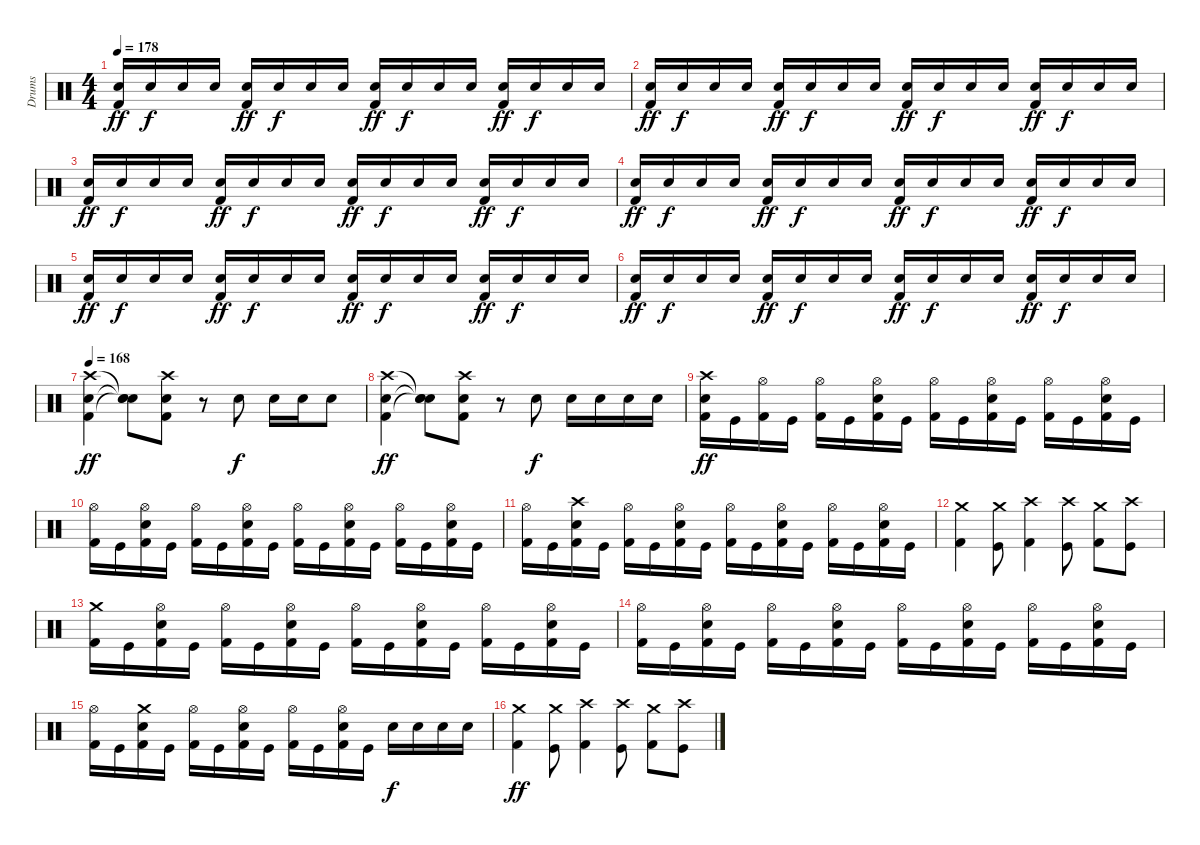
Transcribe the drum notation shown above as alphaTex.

\track ("Drums" "Drums") {instrument percussion}
\staff {score}
\articulation defaults
\ts (4 4)
\tempo 178
\clef neutral
\ks c
("Electric Snare (hit)" "Kick (hit) 2").16{dy ff} "Electric Snare (hit)".16{dy f} "Electric Snare (hit)".16 "Electric Snare (hit)".16 ("Electric Snare (hit)" "Kick (hit) 2").16{dy ff} "Electric Snare (hit)".16{dy f} "Electric Snare (hit)".16 "Electric Snare (hit)".16 ("Electric Snare (hit)" "Kick (hit) 2").16{dy ff} "Electric Snare (hit)".16{dy f} "Electric Snare (hit)".16 "Electric Snare (hit)".16 ("Electric Snare (hit)" "Kick (hit) 2").16{dy ff} "Electric Snare (hit)".16{dy f} "Electric Snare (hit)".16 "Electric Snare (hit)".16 |
("Electric Snare (hit)" "Kick (hit) 2").16{dy ff} "Electric Snare (hit)".16{dy f} "Electric Snare (hit)".16 "Electric Snare (hit)".16 ("Electric Snare (hit)" "Kick (hit) 2").16{dy ff} "Electric Snare (hit)".16{dy f} "Electric Snare (hit)".16 "Electric Snare (hit)".16 ("Electric Snare (hit)" "Kick (hit) 2").16{dy ff} "Electric Snare (hit)".16{dy f} "Electric Snare (hit)".16 "Electric Snare (hit)".16 ("Electric Snare (hit)" "Kick (hit) 2").16{dy ff} "Electric Snare (hit)".16{dy f} "Electric Snare (hit)".16 "Electric Snare (hit)".16 |
("Electric Snare (hit)" "Kick (hit) 2").16{dy ff} "Electric Snare (hit)".16{dy f} "Electric Snare (hit)".16 "Electric Snare (hit)".16 ("Electric Snare (hit)" "Kick (hit) 2").16{dy ff} "Electric Snare (hit)".16{dy f} "Electric Snare (hit)".16 "Electric Snare (hit)".16 ("Electric Snare (hit)" "Kick (hit) 2").16{dy ff} "Electric Snare (hit)".16{dy f} "Electric Snare (hit)".16 "Electric Snare (hit)".16 ("Electric Snare (hit)" "Kick (hit) 2").16{dy ff} "Electric Snare (hit)".16{dy f} "Electric Snare (hit)".16 "Electric Snare (hit)".16 |
("Electric Snare (hit)" "Kick (hit) 2").16{dy ff} "Electric Snare (hit)".16{dy f} "Electric Snare (hit)".16 "Electric Snare (hit)".16 ("Electric Snare (hit)" "Kick (hit) 2").16{dy ff} "Electric Snare (hit)".16{dy f} "Electric Snare (hit)".16 "Electric Snare (hit)".16 ("Electric Snare (hit)" "Kick (hit) 2").16{dy ff} "Electric Snare (hit)".16{dy f} "Electric Snare (hit)".16 "Electric Snare (hit)".16 ("Electric Snare (hit)" "Kick (hit) 2").16{dy ff} "Electric Snare (hit)".16{dy f} "Electric Snare (hit)".16 "Electric Snare (hit)".16 |
("Electric Snare (hit)" "Kick (hit) 2").16{dy ff} "Electric Snare (hit)".16{dy f} "Electric Snare (hit)".16 "Electric Snare (hit)".16 ("Electric Snare (hit)" "Kick (hit) 2").16{dy ff} "Electric Snare (hit)".16{dy f} "Electric Snare (hit)".16 "Electric Snare (hit)".16 ("Electric Snare (hit)" "Kick (hit) 2").16{dy ff} "Electric Snare (hit)".16{dy f} "Electric Snare (hit)".16 "Electric Snare (hit)".16 ("Electric Snare (hit)" "Kick (hit) 2").16{dy ff} "Electric Snare (hit)".16{dy f} "Electric Snare (hit)".16 "Electric Snare (hit)".16 |
("Electric Snare (hit)" "Kick (hit) 2").16{dy ff} "Electric Snare (hit)".16{dy f} "Electric Snare (hit)".16 "Electric Snare (hit)".16 ("Electric Snare (hit)" "Kick (hit) 2").16{dy ff} "Electric Snare (hit)".16{dy f} "Electric Snare (hit)".16 "Electric Snare (hit)".16 ("Electric Snare (hit)" "Kick (hit) 2").16{dy ff} "Electric Snare (hit)".16{dy f} "Electric Snare (hit)".16 "Electric Snare (hit)".16 ("Electric Snare (hit)" "Kick (hit) 2").16{dy ff} "Electric Snare (hit)".16{dy f} "Electric Snare (hit)".16 "Electric Snare (hit)".16 |
\tempo 168
("Crash high (hit)" "Electric Snare (hit)" "Kick (hit) 2").4{dy ff} ("Snare (hit)"{t} "Snare (hit)"{t} "Snare (hit)"{t}).8 ("Crash high (hit)" "Electric Snare (hit)" "Kick (hit) 2").8 r.8 "Electric Snare (hit)".8{dy f} "Electric Snare (hit)".16 "Electric Snare (hit)".16 "Electric Snare (hit)".8 |
("Crash high (hit)" "Electric Snare (hit)" "Kick (hit) 2").4{dy ff} ("Snare (hit)"{t} "Snare (hit)"{t} "Snare (hit)"{t}).8 ("Crash high (hit)" "Electric Snare (hit)" "Kick (hit) 2").8 r.8 "Electric Snare (hit)".8{dy f} "Electric Snare (hit)".16 "Electric Snare (hit)".16 "Electric Snare (hit)".16 "Electric Snare (hit)".16 |
("Crash high (hit)" "Electric Snare (hit)" "Kick (hit) 2").16{dy ff} "Kick (hit)".16 ("Hi-Hat (open)" "Kick (hit) 2").16 "Kick (hit)".16 ("Hi-Hat (open)" "Kick (hit) 2").16 "Kick (hit)".16 ("Hi-Hat (open)" "Electric Snare (hit)" "Kick (hit) 2").16 "Kick (hit)".16 ("Hi-Hat (open)" "Kick (hit) 2").16 "Kick (hit)".16 ("Hi-Hat (open)" "Electric Snare (hit)" "Kick (hit) 2").16 "Kick (hit)".16 ("Hi-Hat (open)" "Kick (hit) 2").16 "Kick (hit)".16 ("Hi-Hat (open)" "Electric Snare (hit)" "Kick (hit) 2").16 "Kick (hit)".16 |
("Hi-Hat (open)" "Kick (hit) 2").16 "Kick (hit)".16 ("Hi-Hat (open)" "Electric Snare (hit)" "Kick (hit) 2").16 "Kick (hit)".16 ("Hi-Hat (open)" "Kick (hit) 2").16 "Kick (hit)".16 ("Hi-Hat (open)" "Electric Snare (hit)" "Kick (hit) 2").16 "Kick (hit)".16 ("Hi-Hat (open)" "Kick (hit) 2").16 "Kick (hit)".16 ("Hi-Hat (open)" "Electric Snare (hit)" "Kick (hit) 2").16 "Kick (hit)".16 ("Hi-Hat (open)" "Kick (hit) 2").16 "Kick (hit)".16 ("Hi-Hat (open)" "Electric Snare (hit)" "Kick (hit) 2").16 "Kick (hit)".16 |
("Hi-Hat (open)" "Kick (hit) 2").16 "Kick (hit)".16 ("Crash high (hit)" "Electric Snare (hit)" "Kick (hit) 2").16 "Kick (hit)".16 ("Hi-Hat (open)" "Kick (hit) 2").16 "Kick (hit)".16 ("Hi-Hat (open)" "Electric Snare (hit)" "Kick (hit) 2").16 "Kick (hit)".16 ("Hi-Hat (open)" "Kick (hit) 2").16 "Kick (hit)".16 ("Hi-Hat (open)" "Electric Snare (hit)" "Kick (hit) 2").16 "Kick (hit)".16 ("Hi-Hat (open)" "Kick (hit) 2").16 "Kick (hit)".16 ("Hi-Hat (open)" "Electric Snare (hit)" "Kick (hit) 2").16 "Kick (hit)".16 |
("Crash medium (hit)" "Kick (hit) 2").4 ("Crash medium (hit)" "Kick (hit)").8 ("Crash high (hit)" "Kick (hit) 2").4 ("Crash high (hit)" "Kick (hit)").8 ("Crash medium (hit)" "Kick (hit) 2").8 ("Crash high (hit)" "Kick (hit)").8 |
("Crash medium (hit)" "Kick (hit) 2").16 "Kick (hit)".16 ("Hi-Hat (open)" "Electric Snare (hit)" "Kick (hit) 2").16 "Kick (hit)".16 ("Hi-Hat (open)" "Kick (hit) 2").16 "Kick (hit)".16 ("Hi-Hat (open)" "Electric Snare (hit)" "Kick (hit) 2").16 "Kick (hit)".16 ("Hi-Hat (open)" "Kick (hit) 2").16 "Kick (hit)".16 ("Hi-Hat (open)" "Electric Snare (hit)" "Kick (hit) 2").16 "Kick (hit)".16 ("Hi-Hat (open)" "Kick (hit) 2").16 "Kick (hit)".16 ("Hi-Hat (open)" "Electric Snare (hit)" "Kick (hit) 2").16 "Kick (hit)".16 |
("Hi-Hat (open)" "Kick (hit) 2").16 "Kick (hit)".16 ("Hi-Hat (open)" "Electric Snare (hit)" "Kick (hit) 2").16 "Kick (hit)".16 ("Hi-Hat (open)" "Kick (hit) 2").16 "Kick (hit)".16 ("Hi-Hat (open)" "Electric Snare (hit)" "Kick (hit) 2").16 "Kick (hit)".16 ("Hi-Hat (open)" "Kick (hit) 2").16 "Kick (hit)".16 ("Hi-Hat (open)" "Electric Snare (hit)" "Kick (hit) 2").16 "Kick (hit)".16 ("Hi-Hat (open)" "Kick (hit) 2").16 "Kick (hit)".16 ("Hi-Hat (open)" "Electric Snare (hit)" "Kick (hit) 2").16 "Kick (hit)".16 |
("Hi-Hat (open)" "Kick (hit) 2").16 "Kick (hit)".16 ("Crash medium (hit)" "Electric Snare (hit)" "Kick (hit) 2").16 "Kick (hit)".16 ("Hi-Hat (open)" "Kick (hit) 2").16 "Kick (hit)".16 ("Hi-Hat (open)" "Electric Snare (hit)" "Kick (hit) 2").16 "Kick (hit)".16 ("Hi-Hat (open)" "Kick (hit) 2").16 "Kick (hit)".16 ("Hi-Hat (open)" "Electric Snare (hit)" "Kick (hit) 2").16 "Kick (hit)".16 "Electric Snare (hit)".16{dy f} "Electric Snare (hit)".16 "Electric Snare (hit)".16 "Electric Snare (hit)".16 |
("Crash medium (hit)" "Kick (hit) 2").4{dy ff} ("Crash medium (hit)" "Kick (hit)").8 ("Crash high (hit)" "Kick (hit) 2").4 ("Crash high (hit)" "Kick (hit)").8 ("Crash medium (hit)" "Kick (hit) 2").8 ("Crash high (hit)" "Kick (hit)").8
